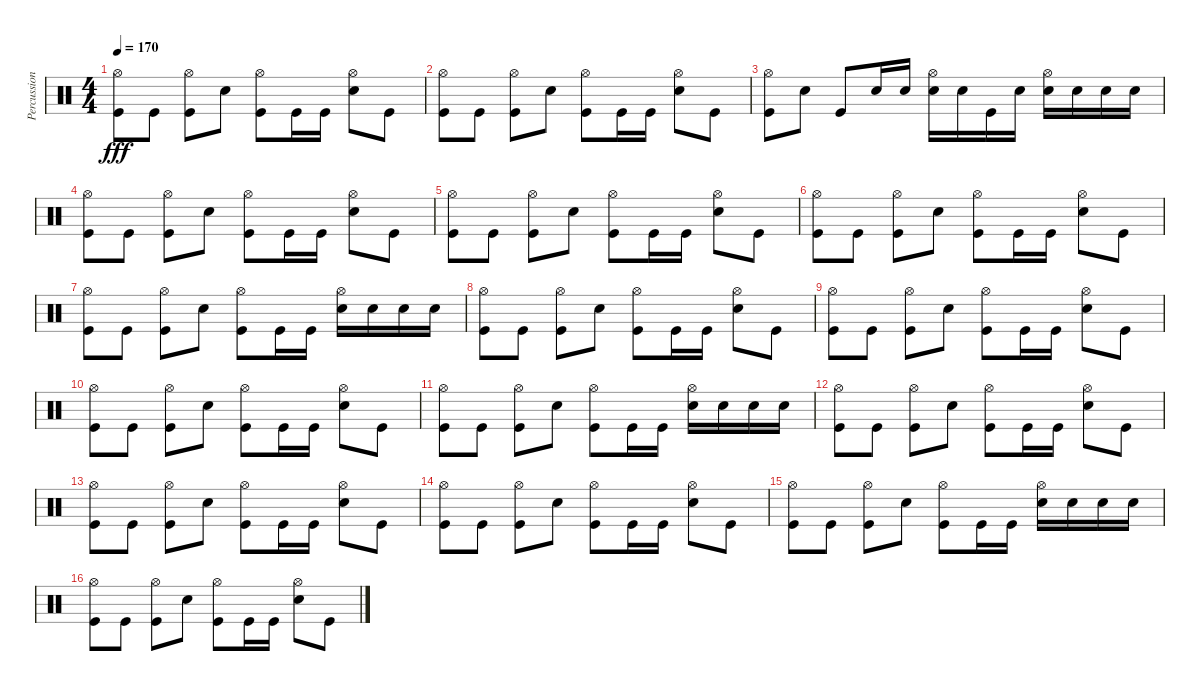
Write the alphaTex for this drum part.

\track ("Percussion" "Percussion") {instrument percussion}
\staff {score}
\articulation defaults
\ts (4 4)
\tempo 170
\clef neutral
\ks c
("Hi-Hat (open)" "Kick (hit)").8{dy fff} "Kick (hit)".8 ("Hi-Hat (open)" "Kick (hit)").8 "Snare (hit) 2".8 ("Hi-Hat (open)" "Kick (hit)").8 "Kick (hit)".16 "Kick (hit)".16 ("Hi-Hat (open)" "Snare (hit) 2").8 "Kick (hit)".8 |
("Hi-Hat (open)" "Kick (hit)").8 "Kick (hit)".8 ("Hi-Hat (open)" "Kick (hit)").8 "Snare (hit) 2".8 ("Hi-Hat (open)" "Kick (hit)").8 "Kick (hit)".16 "Kick (hit)".16 ("Hi-Hat (open)" "Snare (hit) 2").8 "Kick (hit)".8 |
("Hi-Hat (open)" "Kick (hit)").8 "Snare (hit) 2".8 "Kick (hit)".8 "Snare (hit) 2".16 "Snare (hit) 2".16 ("Hi-Hat (open)" "Snare (hit) 2").16 "Snare (hit) 2".16 "Kick (hit)".16 "Snare (hit) 2".16 ("Hi-Hat (open)" "Snare (hit) 2").16 "Snare (hit) 2".16 "Snare (hit) 2".16 "Snare (hit) 2".16 |
("Hi-Hat (open)" "Kick (hit)").8 "Kick (hit)".8 ("Hi-Hat (open)" "Kick (hit)").8 "Snare (hit) 2".8 ("Hi-Hat (open)" "Kick (hit)").8 "Kick (hit)".16 "Kick (hit)".16 ("Hi-Hat (open)" "Snare (hit) 2").8 "Kick (hit)".8 |
("Hi-Hat (open)" "Kick (hit)").8 "Kick (hit)".8 ("Hi-Hat (open)" "Kick (hit)").8 "Snare (hit) 2".8 ("Hi-Hat (open)" "Kick (hit)").8 "Kick (hit)".16 "Kick (hit)".16 ("Hi-Hat (open)" "Snare (hit) 2").8 "Kick (hit)".8 |
("Hi-Hat (open)" "Kick (hit)").8 "Kick (hit)".8 ("Hi-Hat (open)" "Kick (hit)").8 "Snare (hit) 2".8 ("Hi-Hat (open)" "Kick (hit)").8 "Kick (hit)".16 "Kick (hit)".16 ("Hi-Hat (open)" "Snare (hit) 2").8 "Kick (hit)".8 |
("Hi-Hat (open)" "Kick (hit)").8 "Kick (hit)".8 ("Hi-Hat (open)" "Kick (hit)").8 "Snare (hit) 2".8 ("Hi-Hat (open)" "Kick (hit)").8 "Kick (hit)".16 "Kick (hit)".16 ("Hi-Hat (open)" "Snare (hit) 2").16 "Snare (hit) 2".16 "Snare (hit) 2".16 "Snare (hit) 2".16 |
("Hi-Hat (open)" "Kick (hit)").8 "Kick (hit)".8 ("Hi-Hat (open)" "Kick (hit)").8 "Snare (hit) 2".8 ("Hi-Hat (open)" "Kick (hit)").8 "Kick (hit)".16 "Kick (hit)".16 ("Hi-Hat (open)" "Snare (hit) 2").8 "Kick (hit)".8 |
("Hi-Hat (open)" "Kick (hit)").8 "Kick (hit)".8 ("Hi-Hat (open)" "Kick (hit)").8 "Snare (hit) 2".8 ("Hi-Hat (open)" "Kick (hit)").8 "Kick (hit)".16 "Kick (hit)".16 ("Hi-Hat (open)" "Snare (hit) 2").8 "Kick (hit)".8 |
("Hi-Hat (open)" "Kick (hit)").8 "Kick (hit)".8 ("Hi-Hat (open)" "Kick (hit)").8 "Snare (hit) 2".8 ("Hi-Hat (open)" "Kick (hit)").8 "Kick (hit)".16 "Kick (hit)".16 ("Hi-Hat (open)" "Snare (hit) 2").8 "Kick (hit)".8 |
("Hi-Hat (open)" "Kick (hit)").8 "Kick (hit)".8 ("Hi-Hat (open)" "Kick (hit)").8 "Snare (hit) 2".8 ("Hi-Hat (open)" "Kick (hit)").8 "Kick (hit)".16 "Kick (hit)".16 ("Hi-Hat (open)" "Snare (hit) 2").16 "Snare (hit) 2".16 "Snare (hit) 2".16 "Snare (hit) 2".16 |
("Hi-Hat (open)" "Kick (hit)").8 "Kick (hit)".8 ("Hi-Hat (open)" "Kick (hit)").8 "Snare (hit) 2".8 ("Hi-Hat (open)" "Kick (hit)").8 "Kick (hit)".16 "Kick (hit)".16 ("Hi-Hat (open)" "Snare (hit) 2").8 "Kick (hit)".8 |
("Hi-Hat (open)" "Kick (hit)").8 "Kick (hit)".8 ("Hi-Hat (open)" "Kick (hit)").8 "Snare (hit) 2".8 ("Hi-Hat (open)" "Kick (hit)").8 "Kick (hit)".16 "Kick (hit)".16 ("Hi-Hat (open)" "Snare (hit) 2").8 "Kick (hit)".8 |
("Hi-Hat (open)" "Kick (hit)").8 "Kick (hit)".8 ("Hi-Hat (open)" "Kick (hit)").8 "Snare (hit) 2".8 ("Hi-Hat (open)" "Kick (hit)").8 "Kick (hit)".16 "Kick (hit)".16 ("Hi-Hat (open)" "Snare (hit) 2").8 "Kick (hit)".8 |
("Hi-Hat (open)" "Kick (hit)").8 "Kick (hit)".8 ("Hi-Hat (open)" "Kick (hit)").8 "Snare (hit) 2".8 ("Hi-Hat (open)" "Kick (hit)").8 "Kick (hit)".16 "Kick (hit)".16 ("Hi-Hat (open)" "Snare (hit) 2").16 "Snare (hit) 2".16 "Snare (hit) 2".16 "Snare (hit) 2".16 |
("Hi-Hat (open)" "Kick (hit)").8 "Kick (hit)".8 ("Hi-Hat (open)" "Kick (hit)").8 "Snare (hit) 2".8 ("Hi-Hat (open)" "Kick (hit)").8 "Kick (hit)".16 "Kick (hit)".16 ("Hi-Hat (open)" "Snare (hit) 2").8 "Kick (hit)".8
